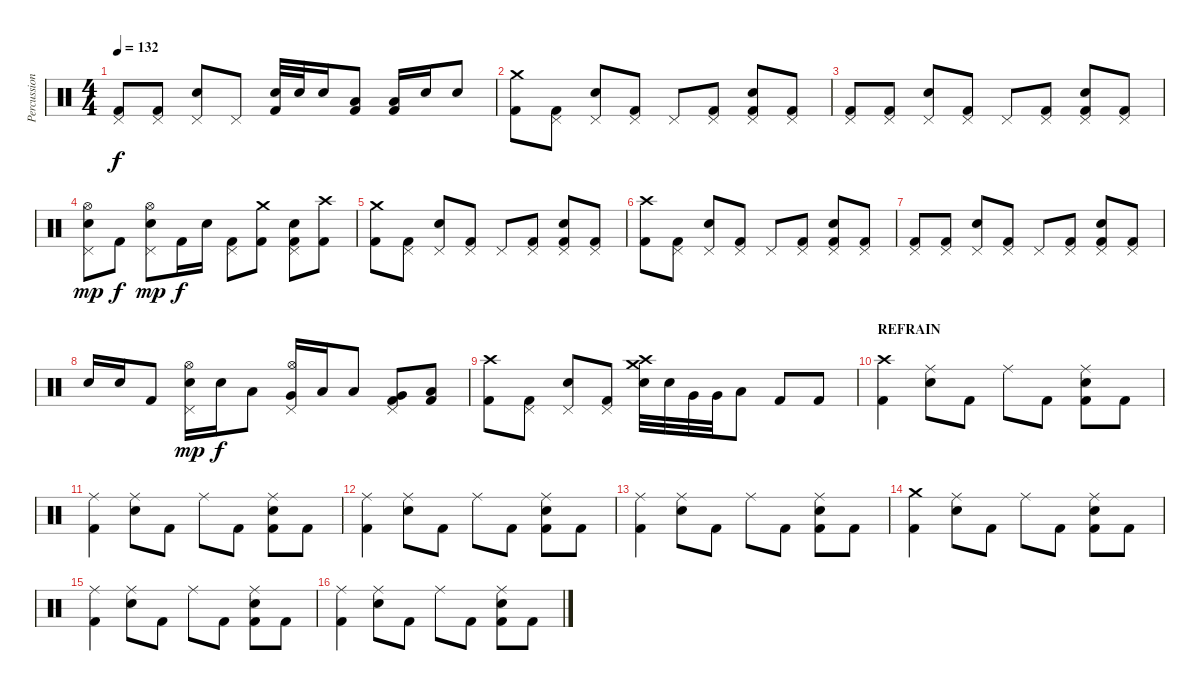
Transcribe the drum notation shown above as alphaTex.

\track ("Percussions" "Percussion") {instrument percussion}
\staff {score}
\articulation defaults
\ts (4 4)
\tempo 132
\clef neutral
\ks c
("Pedal Hi-Hat (hit)" "Kick (hit) 2").8{dy f} ("Pedal Hi-Hat (hit)" "Kick (hit) 2").8 ("Pedal Hi-Hat (hit)" "Electric Snare (hit)").8 "Pedal Hi-Hat (hit)".8 ("Electric Snare (hit)" "Kick (hit) 2").32 "Electric Snare (hit)".32 "Electric Snare (hit)".16 ("Low Floor Tom (hit)" "Kick (hit) 2").8 ("Low Floor Tom (hit)" "Kick (hit) 2").16 "Electric Snare (hit)".16 "Electric Snare (hit)".8 |
("Crash medium (hit)" "Kick (hit) 2").8 ("Pedal Hi-Hat (hit)" "Kick (hit) 2").8 ("Pedal Hi-Hat (hit)" "Electric Snare (hit)").8 ("Pedal Hi-Hat (hit)" "Kick (hit) 2").8 "Pedal Hi-Hat (hit)".8 ("Pedal Hi-Hat (hit)" "Kick (hit) 2").8 ("Pedal Hi-Hat (hit)" "Electric Snare (hit)" "Kick (hit) 2").8 ("Pedal Hi-Hat (hit)" "Kick (hit) 2").8 |
("Pedal Hi-Hat (hit)" "Kick (hit) 2").8 ("Pedal Hi-Hat (hit)" "Kick (hit) 2").8 ("Pedal Hi-Hat (hit)" "Electric Snare (hit)").8 ("Pedal Hi-Hat (hit)" "Kick (hit) 2").8 "Pedal Hi-Hat (hit)".8 ("Pedal Hi-Hat (hit)" "Kick (hit) 2").8 ("Pedal Hi-Hat (hit)" "Electric Snare (hit)" "Kick (hit) 2").8 ("Pedal Hi-Hat (hit)" "Kick (hit) 2").8 |
("Pedal Hi-Hat (hit)" "Hi-Hat (open)" "Electric Snare (hit)").8{dy mp} "Kick (hit) 2".8{dy f} ("Pedal Hi-Hat (hit)" "Hi-Hat (open)" "Electric Snare (hit)").8{dy mp} "Kick (hit) 2".16{dy f} "Electric Snare (hit)".16 ("Pedal Hi-Hat (hit)" "Kick (hit) 2").8 ("Crash medium (hit)" "Kick (hit) 2").8 ("Pedal Hi-Hat (hit)" "Electric Snare (hit)" "Kick (hit) 2").8 ("Crash high (hit)" "Kick (hit) 2").8 |
("Crash medium (hit)" "Kick (hit) 2").8 ("Pedal Hi-Hat (hit)" "Kick (hit) 2").8 ("Pedal Hi-Hat (hit)" "Electric Snare (hit)").8 ("Pedal Hi-Hat (hit)" "Kick (hit) 2").8 "Pedal Hi-Hat (hit)".8 ("Pedal Hi-Hat (hit)" "Kick (hit) 2").8 ("Pedal Hi-Hat (hit)" "Electric Snare (hit)" "Kick (hit) 2").8 ("Pedal Hi-Hat (hit)" "Kick (hit) 2").8 |
("Crash high (hit)" "Kick (hit) 2").8 ("Pedal Hi-Hat (hit)" "Kick (hit) 2").8 ("Pedal Hi-Hat (hit)" "Electric Snare (hit)").8 ("Pedal Hi-Hat (hit)" "Kick (hit) 2").8 "Pedal Hi-Hat (hit)".8 ("Pedal Hi-Hat (hit)" "Kick (hit) 2").8 ("Pedal Hi-Hat (hit)" "Electric Snare (hit)" "Kick (hit) 2").8 ("Pedal Hi-Hat (hit)" "Kick (hit) 2").8 |
("Pedal Hi-Hat (hit)" "Kick (hit) 2").8 ("Pedal Hi-Hat (hit)" "Kick (hit) 2").8 ("Pedal Hi-Hat (hit)" "Electric Snare (hit)").8 ("Pedal Hi-Hat (hit)" "Kick (hit) 2").8 "Pedal Hi-Hat (hit)".8 ("Pedal Hi-Hat (hit)" "Kick (hit) 2").8 ("Pedal Hi-Hat (hit)" "Electric Snare (hit)" "Kick (hit) 2").8 ("Pedal Hi-Hat (hit)" "Kick (hit) 2").8 |
"Electric Snare (hit)".16 "Electric Snare (hit)".16 "Kick (hit) 2".8 ("Pedal Hi-Hat (hit)" "Hi-Hat (open)" "Electric Snare (hit)").16{dy mp} "Electric Snare (hit)".16{dy f} "Low Floor Tom (hit)".8 ("Pedal Hi-Hat (hit)" "Hi-Hat (open)" "Very Low Tom (hit)").16 "Low Tom (hit)".16 "Low Tom (hit)".8 ("Pedal Hi-Hat (hit)" "Very Low Tom (hit)" "Kick (hit) 2").8 ("Low Floor Tom (hit)" "Kick (hit) 2").8 |
("Crash high (hit)" "Kick (hit) 2").8 ("Pedal Hi-Hat (hit)" "Kick (hit) 2").8 ("Pedal Hi-Hat (hit)" "Electric Snare (hit)").8 ("Pedal Hi-Hat (hit)" "Kick (hit) 2").8 ("Crash medium (hit)" "Crash high (hit)" "Electric Snare (hit)").32 "Electric Snare (hit)".32 "Very Low Tom (hit)".32 "Very Low Tom (hit)".32 "Low Floor Tom (hit)".8 "Kick (hit) 2".8 "Kick (hit) 2".8 |
\section ("" "REFRAIN ")
("Crash high (hit)" "Kick (hit) 2").4 ("Ride (middle)" "Electric Snare (hit)").8 "Kick (hit) 2".8 "Ride (middle)".8 "Kick (hit) 2".8 ("Ride (middle)" "Electric Snare (hit)" "Kick (hit) 2").8 "Kick (hit) 2".8 |
("Ride (middle)" "Kick (hit) 2").4 ("Ride (middle)" "Electric Snare (hit)").8 "Kick (hit) 2".8 "Ride (middle)".8 "Kick (hit) 2".8 ("Ride (middle)" "Electric Snare (hit)" "Kick (hit) 2").8 "Kick (hit) 2".8 |
("Ride (middle)" "Kick (hit) 2").4 ("Ride (middle)" "Electric Snare (hit)").8 "Kick (hit) 2".8 "Ride (middle)".8 "Kick (hit) 2".8 ("Ride (middle)" "Electric Snare (hit)" "Kick (hit) 2").8 "Kick (hit) 2".8 |
("Ride (middle)" "Kick (hit) 2").4 ("Ride (middle)" "Electric Snare (hit)").8 "Kick (hit) 2".8 "Ride (middle)".8 "Kick (hit) 2".8 ("Ride (middle)" "Electric Snare (hit)" "Kick (hit) 2").8 "Kick (hit) 2".8 |
("Crash medium (hit)" "Kick (hit) 2").4 ("Ride (middle)" "Electric Snare (hit)").8 "Kick (hit) 2".8 "Ride (middle)".8 "Kick (hit) 2".8 ("Ride (middle)" "Electric Snare (hit)" "Kick (hit) 2").8 "Kick (hit) 2".8 |
("Ride (middle)" "Kick (hit) 2").4 ("Ride (middle)" "Electric Snare (hit)").8 "Kick (hit) 2".8 "Ride (middle)".8 "Kick (hit) 2".8 ("Ride (middle)" "Electric Snare (hit)" "Kick (hit) 2").8 "Kick (hit) 2".8 |
("Ride (middle)" "Kick (hit) 2").4 ("Ride (middle)" "Electric Snare (hit)").8 "Kick (hit) 2".8 "Ride (middle)".8 "Kick (hit) 2".8 ("Ride (middle)" "Electric Snare (hit)" "Kick (hit) 2").8 "Kick (hit) 2".8
